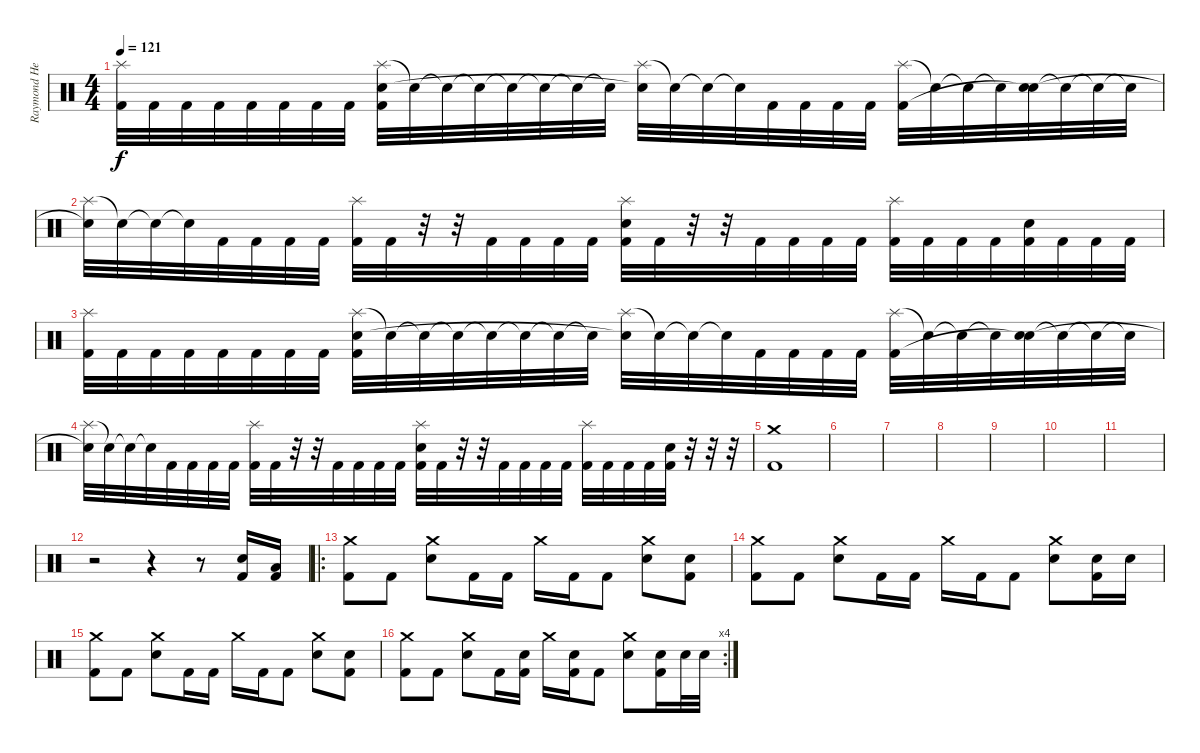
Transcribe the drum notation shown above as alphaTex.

\track ("Raymond Herrerra" "Raymond He") {instrument percussion}
\staff {score}
\articulation defaults
\ts (4 4)
\tempo 121
\clef neutral
\ks c
("Splash (hit)" "Kick (hit) 2").32{dy f} "Kick (hit) 2".32 "Kick (hit) 2".32 "Kick (hit) 2".32 "Kick (hit) 2".32 "Kick (hit) 2".32 "Kick (hit) 2".32 "Kick (hit) 2".32 ("Splash (hit)" "Electric Snare (hit)" "Kick (hit) 2").32 "Snare (hit)"{t}.32 "Snare (hit)"{t}.32 "Snare (hit)"{t}.32 "Snare (hit)"{t}.32 "Snare (hit)"{t}.32 "Snare (hit)"{t}.32 "Snare (hit)"{t}.32 ("Splash (hit)" "Snare (hit)"{t}).32 "Snare (hit)"{t}.32 "Snare (hit)"{t}.32 "Snare (hit)"{t}.32 "Kick (hit) 2".32 "Kick (hit) 2".32 "Kick (hit) 2".32 "Kick (hit) 2".32 ("Splash (hit)" "Kick (hit) 2").32 "Snare (hit)"{t}.32 "Snare (hit)"{t}.32 "Snare (hit)"{t}.32 ("Electric Snare (hit)" "Snare (hit)"{t}).32 "Snare (hit)"{t}.32 "Snare (hit)"{t}.32 "Snare (hit)"{t}.32 |
("Splash (hit)" "Snare (hit)"{t}).32 "Snare (hit)"{t}.32 "Snare (hit)"{t}.32 "Snare (hit)"{t}.32 "Kick (hit) 2".32 "Kick (hit) 2".32 "Kick (hit) 2".32 "Kick (hit) 2".32 ("Splash (hit)" "Kick (hit) 2").32 "Kick (hit) 2".32 r.32 r.32 "Kick (hit) 2".32 "Kick (hit) 2".32 "Kick (hit) 2".32 "Kick (hit) 2".32 ("Splash (hit)" "Electric Snare (hit)" "Kick (hit) 2").32 "Kick (hit) 2".32 r.32 r.32 "Kick (hit) 2".32 "Kick (hit) 2".32 "Kick (hit) 2".32 "Kick (hit) 2".32 ("Splash (hit)" "Kick (hit) 2").32 "Kick (hit) 2".32 "Kick (hit) 2".32 "Kick (hit) 2".32 ("Electric Snare (hit)" "Kick (hit) 2").32 "Kick (hit) 2".32 "Kick (hit) 2".32 "Kick (hit) 2".32 |
("Splash (hit)" "Kick (hit) 2").32 "Kick (hit) 2".32 "Kick (hit) 2".32 "Kick (hit) 2".32 "Kick (hit) 2".32 "Kick (hit) 2".32 "Kick (hit) 2".32 "Kick (hit) 2".32 ("Splash (hit)" "Electric Snare (hit)" "Kick (hit) 2").32 "Snare (hit)"{t}.32 "Snare (hit)"{t}.32 "Snare (hit)"{t}.32 "Snare (hit)"{t}.32 "Snare (hit)"{t}.32 "Snare (hit)"{t}.32 "Snare (hit)"{t}.32 ("Splash (hit)" "Snare (hit)"{t}).32 "Snare (hit)"{t}.32 "Snare (hit)"{t}.32 "Snare (hit)"{t}.32 "Kick (hit) 2".32 "Kick (hit) 2".32 "Kick (hit) 2".32 "Kick (hit) 2".32 ("Splash (hit)" "Kick (hit) 2").32 "Snare (hit)"{t}.32 "Snare (hit)"{t}.32 "Snare (hit)"{t}.32 ("Electric Snare (hit)" "Snare (hit)"{t}).32 "Snare (hit)"{t}.32 "Snare (hit)"{t}.32 "Snare (hit)"{t}.32 |
("Splash (hit)" "Snare (hit)"{t}).32 "Snare (hit)"{t}.32 "Snare (hit)"{t}.32 "Snare (hit)"{t}.32 "Kick (hit) 2".32 "Kick (hit) 2".32 "Kick (hit) 2".32 "Kick (hit) 2".32 ("Splash (hit)" "Kick (hit) 2").32 "Kick (hit) 2".32 r.32 r.32 "Kick (hit) 2".32 "Kick (hit) 2".32 "Kick (hit) 2".32 "Kick (hit) 2".32 ("Splash (hit)" "Electric Snare (hit)" "Kick (hit) 2").32 "Kick (hit) 2".32 r.32 r.32 "Kick (hit) 2".32 "Kick (hit) 2".32 "Kick (hit) 2".32 "Kick (hit) 2".32 ("Splash (hit)" "Kick (hit) 2").32 "Kick (hit) 2".32 "Kick (hit) 2".32 "Kick (hit) 2".32 ("Electric Snare (hit)" "Kick (hit) 2").32 r.32 r.32 r.32 |
("Crash medium (hit)" "Kick (hit) 2").1 |
|
|
|
|
|
|
r.2 r.4 r.8 ("Electric Snare (hit)" "Kick (hit) 2").16 ("Low Floor Tom (hit)" "Kick (hit) 2").16 |
\ro
("Crash medium (hit)" "Kick (hit) 2").8 "Kick (hit) 2".8 ("Crash medium (hit)" "Electric Snare (hit)").8 "Kick (hit) 2".16 "Kick (hit) 2".16 "Crash medium (hit)".16 "Kick (hit) 2".16 "Kick (hit) 2".8 ("Crash medium (hit)" "Electric Snare (hit)").8 ("Electric Snare (hit)" "Kick (hit) 2").8 |
("Crash medium (hit)" "Kick (hit) 2").8 "Kick (hit) 2".8 ("Crash medium (hit)" "Electric Snare (hit)").8 "Kick (hit) 2".16 "Kick (hit) 2".16 "Crash medium (hit)".16 "Kick (hit) 2".16 "Kick (hit) 2".8 ("Crash medium (hit)" "Electric Snare (hit)").8 ("Electric Snare (hit)" "Kick (hit) 2").16 "Electric Snare (hit)".16 |
("Crash medium (hit)" "Kick (hit) 2").8 "Kick (hit) 2".8 ("Crash medium (hit)" "Electric Snare (hit)").8 "Kick (hit) 2".16 "Kick (hit) 2".16 "Crash medium (hit)".16 "Kick (hit) 2".16 "Kick (hit) 2".8 ("Crash medium (hit)" "Electric Snare (hit)").8 ("Electric Snare (hit)" "Kick (hit) 2").8 |
\rc 4
("Crash medium (hit)" "Kick (hit) 2").8 "Kick (hit) 2".8 ("Crash medium (hit)" "Electric Snare (hit)").8 "Kick (hit) 2".16 ("Electric Snare (hit)" "Kick (hit) 2").16 "Crash medium (hit)".16 ("Electric Snare (hit)" "Kick (hit) 2").16 "Kick (hit) 2".8 ("Crash medium (hit)" "Electric Snare (hit)").8 ("Electric Snare (hit)" "Kick (hit) 2").16 "Electric Snare (hit)".32 "Electric Snare (hit)".32
